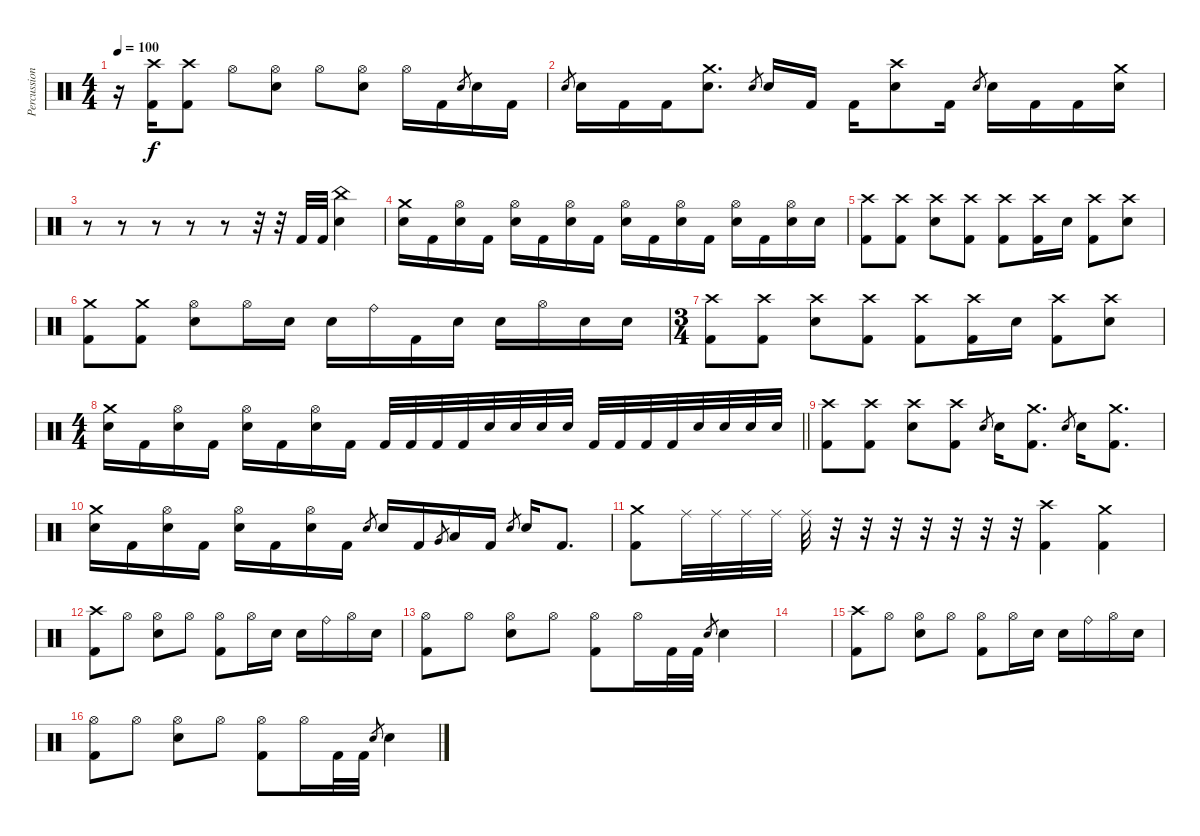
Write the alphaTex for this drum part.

\track ("Percussion (Moose)" "Percussion") {instrument percussion}
\staff {score}
\articulation defaults
\ts (4 4)
\tempo 100
\clef neutral
\ks c
r.16{dy f} ("Crash high (hit)" "Kick (hit) 2").16 ("Crash high (hit)" "Kick (hit) 2").8 "Hi-Hat (open)".8 ("Hi-Hat (open)" "Electric Snare (hit)").8 "Hi-Hat (open)".8 ("Hi-Hat (open)" "Electric Snare (hit)").8 "Hi-Hat (open)".16 "Kick (hit) 2".16 "Electric Snare (hit)".8{gr} "Electric Snare (hit)".16 "Kick (hit) 2".16 |
"Electric Snare (hit)".8{gr} "Electric Snare (hit)".16 "Kick (hit) 2".16 "Kick (hit) 2".16 ("Crash medium (hit)" "Electric Snare (hit)").8{d} "Electric Snare (hit)".8{gr} "Electric Snare (hit)".16 "Kick (hit) 2".16 "Kick (hit) 2".16 ("Crash high (hit)" "Electric Snare (hit)").8 "Kick (hit) 2".16 "Electric Snare (hit)".8{gr} "Electric Snare (hit)".16 "Kick (hit) 2".16 "Kick (hit) 2".16 ("Crash medium (hit)" "Electric Snare (hit)").16 |
r.8 r.8 r.8 r.8 r.8 r.32 r.32 "Kick (hit) 2".32 "Kick (hit) 2".32 ("China (hit)" "Electric Snare (hit)").4 |
("Crash medium (hit)" "Electric Snare (hit)").16 "Kick (hit) 2".16 ("Hi-Hat (open)" "Electric Snare (hit)").16 "Kick (hit) 2".16 ("Hi-Hat (open)" "Electric Snare (hit)").16 "Kick (hit) 2".16 ("Hi-Hat (open)" "Electric Snare (hit)").16 "Kick (hit) 2".16 ("Hi-Hat (open)" "Electric Snare (hit)").16 "Kick (hit) 2".16 ("Hi-Hat (open)" "Electric Snare (hit)").16 "Kick (hit) 2".16 ("Hi-Hat (open)" "Electric Snare (hit)").16 "Kick (hit) 2".16 ("Hi-Hat (open)" "Electric Snare (hit)").16 "Electric Snare (hit)".16 |
("Crash high (hit)" "Kick (hit) 2").8 ("Crash high (hit)" "Kick (hit) 2").8 ("Crash high (hit)" "Electric Snare (hit)").8 ("Crash high (hit)" "Kick (hit) 2").8 ("Crash high (hit)" "Kick (hit) 2").8 ("Crash high (hit)" "Kick (hit) 2").16 "Electric Snare (hit)".16 ("Crash high (hit)" "Kick (hit) 2").8 ("Crash high (hit)" "Electric Snare (hit)").8 |
("Crash medium (hit)" "Kick (hit) 2").8 ("Crash medium (hit)" "Kick (hit) 2").8 ("Hi-Hat (open)" "Electric Snare (hit)").8 "Hi-Hat (open)".16 "Electric Snare (hit)".16 "Electric Snare (hit)".16 "Ride (bell)".16 "Kick (hit) 2".16 "Electric Snare (hit)".16 "Electric Snare (hit)".16 "Hi-Hat (open)".16 "Electric Snare (hit)".16 "Electric Snare (hit)".16 |
\ts (3 4)
("Crash high (hit)" "Kick (hit) 2").8 ("Crash high (hit)" "Kick (hit) 2").8 ("Crash high (hit)" "Electric Snare (hit)").8 ("Crash high (hit)" "Kick (hit) 2").8 ("Crash high (hit)" "Kick (hit) 2").8 ("Crash high (hit)" "Kick (hit) 2").16 "Electric Snare (hit)".16 ("Crash high (hit)" "Kick (hit) 2").8 ("Crash high (hit)" "Electric Snare (hit)").8 |
\ts (4 4)
\barLineRight lightlight
("Crash medium (hit)" "Electric Snare (hit)").16 "Kick (hit) 2".16 ("Hi-Hat (open)" "Electric Snare (hit)").16 "Kick (hit) 2".16 ("Hi-Hat (open)" "Electric Snare (hit)").16 "Kick (hit) 2".16 ("Hi-Hat (open)" "Electric Snare (hit)").16 "Kick (hit) 2".16 "Kick (hit) 2".32 "Kick (hit) 2".32 "Kick (hit) 2".32 "Kick (hit) 2".32 "Electric Snare (hit)".32 "Electric Snare (hit)".32 "Electric Snare (hit)".32 "Electric Snare (hit)".32 "Kick (hit) 2".32 "Kick (hit) 2".32 "Kick (hit) 2".32 "Kick (hit) 2".32 "Electric Snare (hit)".32 "Electric Snare (hit)".32 "Electric Snare (hit)".32 "Electric Snare (hit)".32 |
("Crash high (hit)" "Kick (hit) 2").8 ("Crash high (hit)" "Kick (hit) 2").8 ("Crash high (hit)" "Electric Snare (hit)").8 ("Crash high (hit)" "Kick (hit) 2").8 "Electric Snare (hit)".8{gr} "Electric Snare (hit)".16 ("Crash medium (hit)" "Kick (hit) 2").8{d} "Electric Snare (hit)".8{gr} "Electric Snare (hit)".16 ("Crash medium (hit)" "Kick (hit) 2").8{d} |
("Crash medium (hit)" "Electric Snare (hit)").16 "Kick (hit) 2".16 ("Hi-Hat (open)" "Electric Snare (hit)").16 "Kick (hit) 2".16 ("Hi-Hat (open)" "Electric Snare (hit)").16 "Kick (hit) 2".16 ("Hi-Hat (open)" "Electric Snare (hit)").16 "Kick (hit) 2".16 "Electric Snare (hit)".8{gr} "Electric Snare (hit)".16 "Kick (hit) 2".16 "Very Low Tom (hit)".8{gr} "Low Floor Tom (hit)".16 "Kick (hit) 2".16 "Electric Snare (hit)".8{gr} "Electric Snare (hit)".16 "Kick (hit) 2".8{d} |
("Crash medium (hit)" "Kick (hit) 2").8 "Ride (middle)".32 "Ride (middle)".32 "Ride (middle)".32 "Ride (middle)".32 "Ride (middle)".32 r.32 r.32 r.32 r.32 r.32 r.32 r.32 ("Crash high (hit)" "Kick (hit) 2").4 ("Crash medium (hit)" "Kick (hit) 2").4 |
("Crash high (hit)" "Kick (hit) 2").8 "Hi-Hat (open)".8 ("Hi-Hat (open)" "Electric Snare (hit)").8 "Hi-Hat (open)".8 ("Hi-Hat (open)" "Kick (hit) 2").8 "Hi-Hat (open)".16 "Electric Snare (hit)".16 "Electric Snare (hit)".16 "Ride (bell)".16 "Hi-Hat (open)".16 "Electric Snare (hit)".16 |
("Hi-Hat (open)" "Kick (hit) 2").8 "Hi-Hat (open)".8 ("Hi-Hat (open)" "Electric Snare (hit)").8 "Hi-Hat (open)".8 ("Hi-Hat (open)" "Kick (hit) 2").8 "Hi-Hat (open)".16 "Kick (hit) 2".32 "Kick (hit) 2".32 "Electric Snare (hit)".8{gr} "Electric Snare (hit)".4 |
|
("Crash high (hit)" "Kick (hit) 2").8 "Hi-Hat (open)".8 ("Hi-Hat (open)" "Electric Snare (hit)").8 "Hi-Hat (open)".8 ("Hi-Hat (open)" "Kick (hit) 2").8 "Hi-Hat (open)".16 "Electric Snare (hit)".16 "Electric Snare (hit)".16 "Ride (bell)".16 "Hi-Hat (open)".16 "Electric Snare (hit)".16 |
("Hi-Hat (open)" "Kick (hit) 2").8 "Hi-Hat (open)".8 ("Hi-Hat (open)" "Electric Snare (hit)").8 "Hi-Hat (open)".8 ("Hi-Hat (open)" "Kick (hit) 2").8 "Hi-Hat (open)".16 "Kick (hit) 2".32 "Kick (hit) 2".32 "Electric Snare (hit)".8{gr} "Electric Snare (hit)".4
